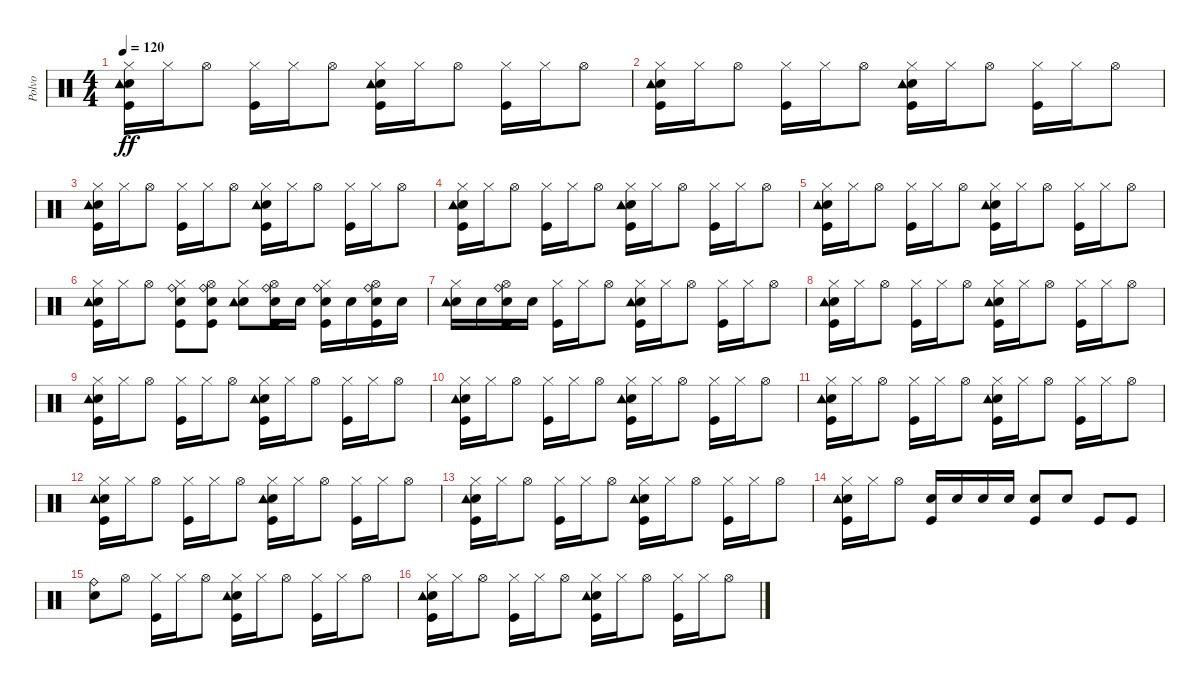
\track ("Polvo" "Polvo") {instrument percussion}
\staff {score}
\articulation defaults
\ts (4 4)
\tempo 120
\clef neutral
\ks c
("Hi-Hat (closed)" "Electric Snare (hit)" "Kick (hit)" "Tambourine (hit)").16{dy ff} "Hi-Hat (closed)".16 "Hi-Hat (open)".8 ("Hi-Hat (closed)" "Kick (hit)").16 "Hi-Hat (closed)".16 "Hi-Hat (open)".8 ("Hi-Hat (closed)" "Electric Snare (hit)" "Kick (hit)" "Tambourine (hit)").16 "Hi-Hat (closed)".16 "Hi-Hat (open)".8 ("Hi-Hat (closed)" "Kick (hit)").16 "Hi-Hat (closed)".16 "Hi-Hat (open)".8 |
("Hi-Hat (closed)" "Electric Snare (hit)" "Kick (hit)" "Tambourine (hit)").16 "Hi-Hat (closed)".16 "Hi-Hat (open)".8 ("Hi-Hat (closed)" "Kick (hit)").16 "Hi-Hat (closed)".16 "Hi-Hat (open)".8 ("Hi-Hat (closed)" "Electric Snare (hit)" "Kick (hit)" "Tambourine (hit)").16 "Hi-Hat (closed)".16 "Hi-Hat (open)".8 ("Hi-Hat (closed)" "Kick (hit)").16 "Hi-Hat (closed)".16 "Hi-Hat (open)".8 |
("Hi-Hat (closed)" "Electric Snare (hit)" "Kick (hit)" "Tambourine (hit)").16 "Hi-Hat (closed)".16 "Hi-Hat (open)".8 ("Hi-Hat (closed)" "Kick (hit)").16 "Hi-Hat (closed)".16 "Hi-Hat (open)".8 ("Hi-Hat (closed)" "Electric Snare (hit)" "Kick (hit)" "Tambourine (hit)").16 "Hi-Hat (closed)".16 "Hi-Hat (open)".8 ("Hi-Hat (closed)" "Kick (hit)").16 "Hi-Hat (closed)".16 "Hi-Hat (open)".8 |
("Hi-Hat (closed)" "Electric Snare (hit)" "Kick (hit)" "Tambourine (hit)").16 "Hi-Hat (closed)".16 "Hi-Hat (open)".8 ("Hi-Hat (closed)" "Kick (hit)").16 "Hi-Hat (closed)".16 "Hi-Hat (open)".8 ("Hi-Hat (closed)" "Electric Snare (hit)" "Kick (hit)" "Tambourine (hit)").16 "Hi-Hat (closed)".16 "Hi-Hat (open)".8 ("Hi-Hat (closed)" "Kick (hit)").16 "Hi-Hat (closed)".16 "Hi-Hat (open)".8 |
("Hi-Hat (closed)" "Electric Snare (hit)" "Kick (hit)" "Tambourine (hit)").16 "Hi-Hat (closed)".16 "Hi-Hat (open)".8 ("Hi-Hat (closed)" "Kick (hit)").16 "Hi-Hat (closed)".16 "Hi-Hat (open)".8 ("Hi-Hat (closed)" "Electric Snare (hit)" "Kick (hit)" "Tambourine (hit)").16 "Hi-Hat (closed)".16 "Hi-Hat (open)".8 ("Hi-Hat (closed)" "Kick (hit)").16 "Hi-Hat (closed)".16 "Hi-Hat (open)".8 |
("Hi-Hat (closed)" "Electric Snare (hit)" "Kick (hit)" "Tambourine (hit)").16 "Hi-Hat (closed)".16 "Hi-Hat (open)".8 ("Electric Snare (hit)" "Kick (hit)" "Hi-Hat (closed)" "Ride (bell)").8 ("Electric Snare (hit)" "Kick (hit)" "Hi-Hat (open)" "Ride (bell)").8 ("Electric Snare (hit)" "Hi-Hat (closed)" "Tambourine (hit)").8 ("Electric Snare (hit)" "Kick (hit)" "Hi-Hat (open)" "Ride (bell)").16 "Electric Snare (hit)".16 ("Electric Snare (hit)" "Kick (hit)" "Hi-Hat (closed)" "Ride (bell)").16 "Electric Snare (hit)".16 ("Electric Snare (hit)" "Kick (hit)" "Hi-Hat (open)" "Ride (bell)").16 "Electric Snare (hit)".16 |
("Electric Snare (hit)" "Hi-Hat (closed)" "Tambourine (hit)").16 "Electric Snare (hit)".16 ("Electric Snare (hit)" "Kick (hit)" "Hi-Hat (open)" "Ride (bell)").16 "Electric Snare (hit)".16 ("Hi-Hat (closed)" "Kick (hit)").16 "Hi-Hat (closed)".16 "Hi-Hat (open)".8 ("Hi-Hat (closed)" "Electric Snare (hit)" "Kick (hit)" "Tambourine (hit)").16 "Hi-Hat (closed)".16 "Hi-Hat (open)".8 ("Hi-Hat (closed)" "Kick (hit)").16 "Hi-Hat (closed)".16 "Hi-Hat (open)".8 |
("Hi-Hat (closed)" "Electric Snare (hit)" "Kick (hit)" "Tambourine (hit)").16 "Hi-Hat (closed)".16 "Hi-Hat (open)".8 ("Hi-Hat (closed)" "Kick (hit)").16 "Hi-Hat (closed)".16 "Hi-Hat (open)".8 ("Hi-Hat (closed)" "Electric Snare (hit)" "Kick (hit)" "Tambourine (hit)").16 "Hi-Hat (closed)".16 "Hi-Hat (open)".8 ("Hi-Hat (closed)" "Kick (hit)").16 "Hi-Hat (closed)".16 "Hi-Hat (open)".8 |
("Hi-Hat (closed)" "Electric Snare (hit)" "Kick (hit)" "Tambourine (hit)").16 "Hi-Hat (closed)".16 "Hi-Hat (open)".8 ("Hi-Hat (closed)" "Kick (hit)").16 "Hi-Hat (closed)".16 "Hi-Hat (open)".8 ("Hi-Hat (closed)" "Electric Snare (hit)" "Kick (hit)" "Tambourine (hit)").16 "Hi-Hat (closed)".16 "Hi-Hat (open)".8 ("Hi-Hat (closed)" "Kick (hit)").16 "Hi-Hat (closed)".16 "Hi-Hat (open)".8 |
("Hi-Hat (closed)" "Electric Snare (hit)" "Kick (hit)" "Tambourine (hit)").16 "Hi-Hat (closed)".16 "Hi-Hat (open)".8 ("Hi-Hat (closed)" "Kick (hit)").16 "Hi-Hat (closed)".16 "Hi-Hat (open)".8 ("Hi-Hat (closed)" "Electric Snare (hit)" "Kick (hit)" "Tambourine (hit)").16 "Hi-Hat (closed)".16 "Hi-Hat (open)".8 ("Hi-Hat (closed)" "Kick (hit)").16 "Hi-Hat (closed)".16 "Hi-Hat (open)".8 |
("Hi-Hat (closed)" "Electric Snare (hit)" "Kick (hit)" "Tambourine (hit)").16 "Hi-Hat (closed)".16 "Hi-Hat (open)".8 ("Hi-Hat (closed)" "Kick (hit)").16 "Hi-Hat (closed)".16 "Hi-Hat (open)".8 ("Hi-Hat (closed)" "Electric Snare (hit)" "Kick (hit)" "Tambourine (hit)").16 "Hi-Hat (closed)".16 "Hi-Hat (open)".8 ("Hi-Hat (closed)" "Kick (hit)").16 "Hi-Hat (closed)".16 "Hi-Hat (open)".8 |
("Hi-Hat (closed)" "Electric Snare (hit)" "Kick (hit)" "Tambourine (hit)").16 "Hi-Hat (closed)".16 "Hi-Hat (open)".8 ("Hi-Hat (closed)" "Kick (hit)").16 "Hi-Hat (closed)".16 "Hi-Hat (open)".8 ("Hi-Hat (closed)" "Electric Snare (hit)" "Kick (hit)" "Tambourine (hit)").16 "Hi-Hat (closed)".16 "Hi-Hat (open)".8 ("Hi-Hat (closed)" "Kick (hit)").16 "Hi-Hat (closed)".16 "Hi-Hat (open)".8 |
("Hi-Hat (closed)" "Electric Snare (hit)" "Kick (hit)" "Tambourine (hit)").16 "Hi-Hat (closed)".16 "Hi-Hat (open)".8 ("Hi-Hat (closed)" "Kick (hit)").16 "Hi-Hat (closed)".16 "Hi-Hat (open)".8 ("Hi-Hat (closed)" "Electric Snare (hit)" "Kick (hit)" "Tambourine (hit)").16 "Hi-Hat (closed)".16 "Hi-Hat (open)".8 ("Hi-Hat (closed)" "Kick (hit)").16 "Hi-Hat (closed)".16 "Hi-Hat (open)".8 |
("Hi-Hat (closed)" "Electric Snare (hit)" "Kick (hit)" "Tambourine (hit)").16 "Hi-Hat (closed)".16 "Hi-Hat (open)".8 ("Kick (hit)" "Electric Snare (hit)").16 "Electric Snare (hit)".16 "Electric Snare (hit)".16 "Electric Snare (hit)".16 ("Kick (hit)" "Electric Snare (hit)").8 "Electric Snare (hit)".8 "Kick (hit)".8 "Kick (hit)".8 |
("Ride (bell)" "Electric Snare (hit)").8 "Hi-Hat (open)".8 ("Hi-Hat (closed)" "Kick (hit)").16 "Hi-Hat (closed)".16 "Hi-Hat (open)".8 ("Hi-Hat (closed)" "Electric Snare (hit)" "Kick (hit)" "Tambourine (hit)").16 "Hi-Hat (closed)".16 "Hi-Hat (open)".8 ("Hi-Hat (closed)" "Kick (hit)").16 "Hi-Hat (closed)".16 "Hi-Hat (open)".8 |
("Hi-Hat (closed)" "Electric Snare (hit)" "Kick (hit)" "Tambourine (hit)").16 "Hi-Hat (closed)".16 "Hi-Hat (open)".8 ("Hi-Hat (closed)" "Kick (hit)").16 "Hi-Hat (closed)".16 "Hi-Hat (open)".8 ("Hi-Hat (closed)" "Electric Snare (hit)" "Kick (hit)" "Tambourine (hit)").16 "Hi-Hat (closed)".16 "Hi-Hat (open)".8 ("Hi-Hat (closed)" "Kick (hit)").16 "Hi-Hat (closed)".16 "Hi-Hat (open)".8
